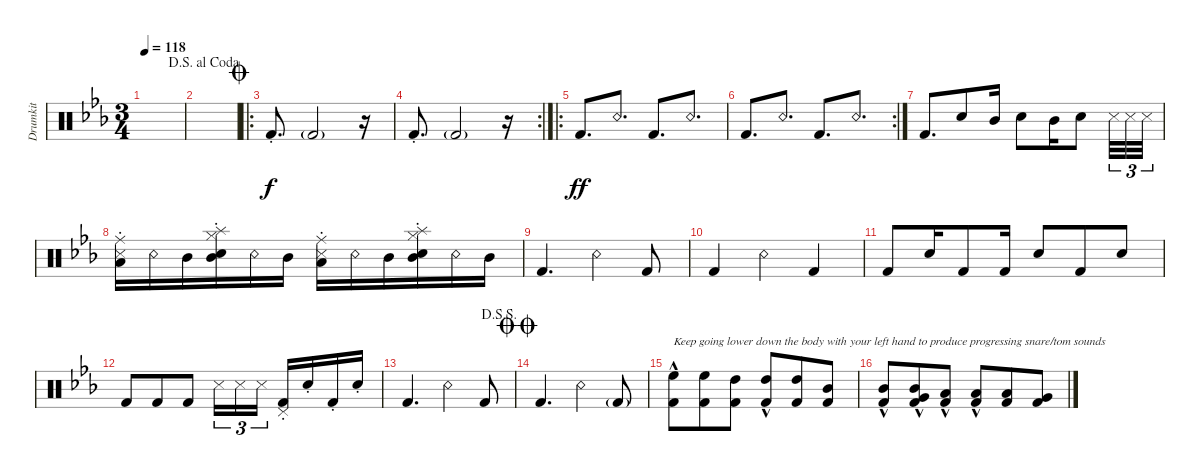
\defaultSystemsLayout 4
\bracketExtendMode groupsimilarinstruments
\otherSystemsTrackNameOrientation horizontal
\track ("Drumkit" "Drumkit") {instrument percussion}
\staff {score}
\articulation defaults
\ts (3 4)
\scale
0.903896
\tempo 118
\accidentals auto
\clef neutral
\ottava regular
\simile none
\ks cminor
|
\scale
1.04375
\jump dalsegnoalcoda
|
\ro
\scale
0.956249
\jump coda "Kick (hit) 2"{st acc forcenatural}.8{d dy f beam Up} "Kick (hit) 2"{g acc forcenatural}.2{beam Up}
r.16{beam Up} |
\rc 2
\scale
1.14247 "Kick (hit) 2"{st acc forcenatural}.8{d beam Up} "Kick (hit) 2"{g acc forcenatural}.2{beam Up} r.16{beam Up} |
\ro
\beaming (8 3 3)
\scale
0.857527 "Kick (hit) 2"{acc forcenatural}.8{d dy ff beam Up} "Snare (rim shot)"{acc forcenatural}.8{d beam Up} "Kick (hit) 2"{acc forcenatural}.8{d beam Up} "Snare (rim shot)"{acc forcenatural}.8{d beam Up} |
\rc 2
\scale
1.11449 "Kick (hit) 2"{acc forcenatural}.8{d beam Up} "Snare (rim shot)"{acc forcenatural}.8{d beam Up} "Kick (hit) 2"{acc forcenatural}.8{d beam Up} "Snare (rim shot)"{acc forcenatural}.8{d beam Up} |
\scale
0.88551 "Kick (hit) 2"{acc forcenatural}.8{d beam Up} "Snare (hit) 2"{acc forcenatural}.8{beam Up} "Mid Tom (hit)"{acc forcenatural}.16{beam Up} "Snare (hit) 2"{acc forcenatural}.8{beam Down} "Mid Tom (hit)"{acc forcenatural}.16{beam Down} "Snare (hit) 2"{acc forcenatural}.8{beam Down} "Snare (side stick) 3"{acc forcenatural}.32{tu (3 2) beam Down} "Snare (side stick) 3"{acc forcenatural}.32{tu (3 2) beam Down} "Snare (side stick) 3"{acc forcenatural}.32{tu (3 2) beam Down} |
\scale
0.807289 ("Snare (side stick) 3"{acc forcenatural} "Ride (middle)"{st acc forcenatural} "Low Tom (hit)"{acc forcenatural}).16{beam Down} "Snare (rim shot)"{acc forcenatural}.16{beam Down} "Mid Tom (hit)"{acc forcenatural}.16{beam Down} ("Hi-Hat (closed)"{acc forcenatural} "Splash (hit)"{st acc forcenatural} "Snare (hit) 2"{acc forcenatural} "Mid Tom (hit)"{acc forcenatural}).16{beam Down} "Snare (rim shot)"{acc forcenatural}.16{beam Down} "Mid Tom (hit)"{acc forcenatural}.16{beam Down} ("Snare (side stick) 3"{acc forcenatural} "Ride (middle)"{st acc forcenatural} "Low Tom (hit)"{acc forcenatural}).16{beam Down} "Snare (rim shot)"{acc forcenatural}.16{beam Down} "Mid Tom (hit)"{acc forcenatural}.16{beam Down} ("Hi-Hat (closed)"{acc forcenatural} "Splash (hit)"{st acc forcenatural} "Snare (hit) 2"{acc forcenatural} "Mid Tom (hit)"{acc forcenatural}).16{beam Down} "Snare (rim shot)"{acc forcenatural}.16{beam Down} "Mid Tom (hit)"{acc forcenatural}.16{beam Down} |
\scale
1.19271 "Kick (hit) 2"{acc forcenatural}.4{d beam Up} "Snare (rim shot)"{acc forcenatural}.4{beam Down} "Kick (hit) 2"{acc forcenatural}.8{beam Up} |
\scale
1.23086 "Kick (hit) 2"{acc forcenatural}.4{beam Up} "Snare (rim shot)"{acc forcenatural}.4{beam Down} "Kick (hit) 2"{acc forcenatural}.4{beam Up} |
\scale
0.769142 "Kick (hit) 2"{acc forcenatural}.8{beam Up} "Snare (hit) 2"{acc forcenatural}.16{beam Up} "Kick (hit) 2"{acc forcenatural}.8{beam Up} "Kick (hit) 2"{acc forcenatural}.16{beam Up} "Snare (hit) 2"{acc forcenatural}.8{beam Up} "Kick (hit) 2"{acc forcenatural}.8{beam Up} "Snare (hit) 2"{acc forcenatural}.8{beam Up} |
\scale
0.82265 "Kick (hit) 2"{acc forcenatural}.8{beam Up} "Kick (hit) 2"{acc forcenatural}.8{beam Up} "Kick (hit) 2"{acc forcenatural}.8{beam Up} "Snare (side stick) 3"{acc forcenatural}.16{tu (3 2) beam Down} "Snare (side stick) 3"{acc forcenatural}.16{tu (3 2) beam Down} "Snare (side stick) 3"{acc forcenatural}.16{tu (3 2) beam Down} ("Pedal Hi-Hat (hit)"{st acc forcenatural} "Kick (hit) 2"{st acc forcenatural}).16{beam Up} "Snare (hit) 2"{st acc forcenatural}.16{beam Up} "Kick (hit) 2"{st acc forcenatural}.16{beam Up} "Snare (hit) 2"{st acc forcenatural}.16{beam Up} |
\scale
1.17735
\jump dalsegnosegno "Kick (hit) 2"{acc forcenatural}.4{d beam Up} "Snare (rim shot)"{acc forcenatural}.4{beam Down} "Kick (hit) 2"{acc forcenatural}.8{beam Up}
|
\scale
0.569205
\jump doublecoda "Kick (hit) 2"{acc forcenatural}.4{d beam Up} "Snare (rim shot)"{acc forcenatural}.4{beam Down} "Kick (hit) 2"{g acc forcenatural}.8{beam Up}
|
\scale
0.430786 ("Kick (hit) 2"{hac acc forcenatural} "High Floor Tom (hit)"{hac acc forcenatural}).8{txt "Keep going lower down the body with your left hand to produce progressing snare/tom sounds" beam Down} ("Kick (hit) 2"{acc forcenatural} "High Floor Tom (hit)"{acc forcenatural}).8{beam Down} ("Kick (hit) 2"{acc forcenatural} "High Tom (hit)"{acc forcenatural}).8{beam Down} ("Kick (hit) 2"{hac acc forcenatural} "High Tom (hit)"{acc forcenatural}).8{beam Up} ("Kick (hit) 2"{acc forcenatural} "High Tom (hit)"{acc forcenatural}).8{beam Up} ("Kick (hit) 2"{acc forcenatural} "Mid Tom (hit)"{acc forcenatural}).8{beam Up} |
\scale
1.10926 ("Kick (hit) 2"{hac acc forcenatural} "Mid Tom (hit)"{acc forcenatural}).8{beam Up} ("Kick (hit) 2"{acc forcenatural} "Very Low Tom (hit)"{hac acc forcenatural} "Mid Tom (hit)"{acc forcenatural}).8{beam Up} ("Kick (hit) 2"{hac acc forcenatural} "Low Tom (hit)"{acc forcenatural}).8{beam Up} ("Kick (hit) 2"{hac acc forcenatural} "Low Tom (hit)"{acc forcenatural}).8{beam Up} ("Kick (hit) 2"{acc forcenatural} "Low Tom (hit)"{acc forcenatural}).8{beam Up} ("Kick (hit) 2"{acc forcenatural} "Very Low Tom (hit)"{acc forcenatural}).8{beam Up}
